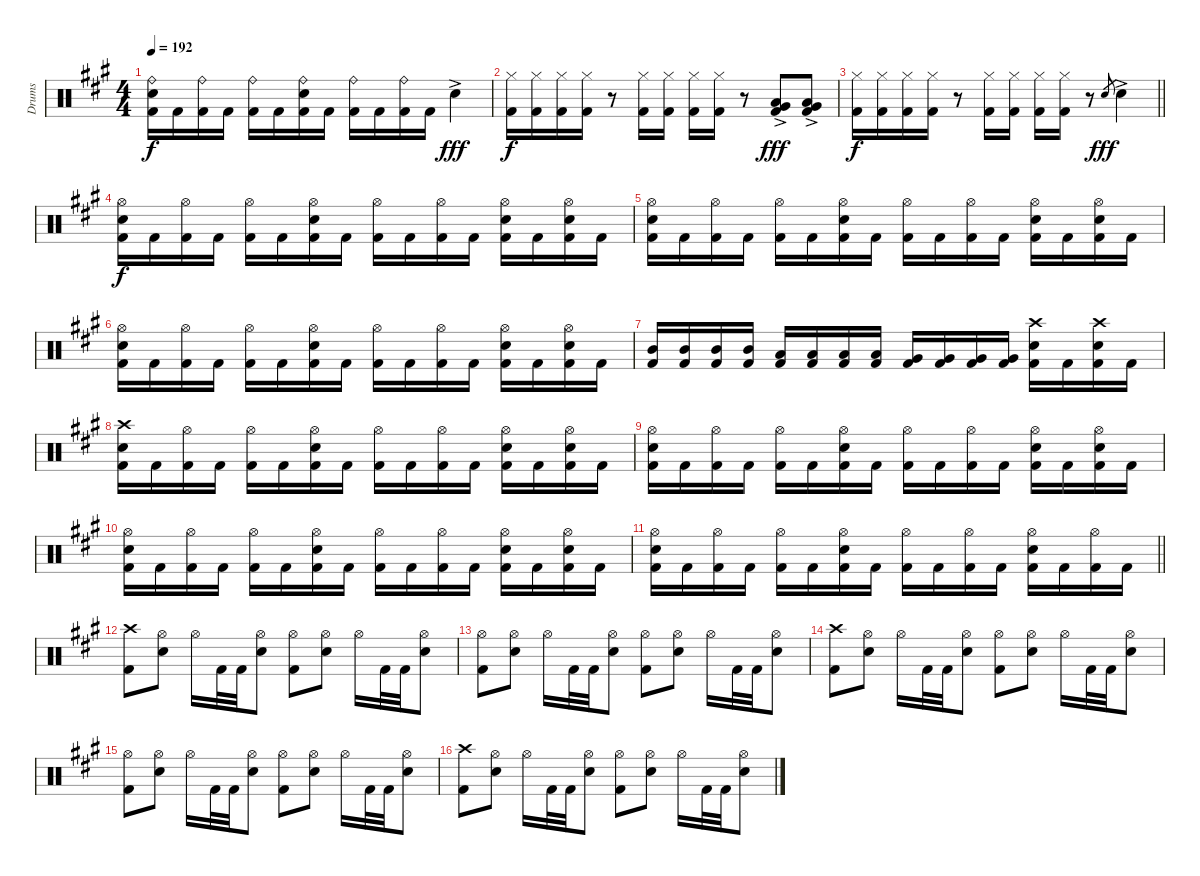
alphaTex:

\track ("Drums" "Drums") {instrument percussion}
\staff {score}
\articulation defaults
\ts (4 4)
\tempo 192
\clef neutral
\ks f#minor
("Ride (bell)" "Snare (hit) 2" "Kick (hit) 2").16{dy f} "Kick (hit) 2".16 ("Ride (bell)" "Kick (hit) 2").16 "Kick (hit) 2".16 ("Ride (bell)" "Kick (hit) 2").16 "Kick (hit) 2".16 ("Ride (bell)" "Snare (hit) 2" "Kick (hit) 2").16 "Kick (hit) 2".16 ("Ride (bell)" "Kick (hit) 2").16 "Kick (hit) 2".16 ("Ride (bell)" "Kick (hit) 2").16 "Kick (hit) 2".16 "Snare (hit) 2"{ac}.4{dy fff} |
("Hi-Hat (closed)" "Kick (hit) 2").16{dy f} ("Hi-Hat (closed)" "Kick (hit) 2").16 ("Hi-Hat (closed)" "Kick (hit) 2").16 ("Hi-Hat (closed)" "Kick (hit) 2").16 r.8 ("Hi-Hat (closed)" "Kick (hit) 2").16 ("Hi-Hat (closed)" "Kick (hit) 2").16 ("Hi-Hat (closed)" "Kick (hit) 2").16 ("Hi-Hat (closed)" "Kick (hit) 2").16 r.8 ("Low Tom (hit)"{ac} "Very Low Tom (hit)"{ac} "Kick (hit) 2").8{dy fff} ("Low Tom (hit)"{ac} "Very Low Tom (hit)"{ac} "Kick (hit) 2").8 |
\barLineRight lightlight
("Hi-Hat (closed)" "Kick (hit) 2").16{dy f} ("Hi-Hat (closed)" "Kick (hit) 2").16 ("Hi-Hat (closed)" "Kick (hit) 2").16 ("Hi-Hat (closed)" "Kick (hit) 2").16 r.8 ("Hi-Hat (closed)" "Kick (hit) 2").16 ("Hi-Hat (closed)" "Kick (hit) 2").16 ("Hi-Hat (closed)" "Kick (hit) 2").16 ("Hi-Hat (closed)" "Kick (hit) 2").16 r.8 "Snare (hit) 2".8{gr dy fff} "Snare (hit) 2"{ac}.4 |
("Hi-Hat (open)" "Snare (hit) 2" "Kick (hit) 2").16{dy f} "Kick (hit) 2".16 ("Hi-Hat (open)" "Kick (hit) 2").16 "Kick (hit) 2".16 ("Hi-Hat (open)" "Kick (hit) 2").16 "Kick (hit) 2".16 ("Hi-Hat (open)" "Snare (hit) 2" "Kick (hit) 2").16 "Kick (hit) 2".16 ("Hi-Hat (open)" "Kick (hit) 2").16 "Kick (hit) 2".16 ("Hi-Hat (open)" "Kick (hit) 2").16 "Kick (hit) 2".16 ("Hi-Hat (open)" "Snare (hit) 2" "Kick (hit) 2").16 "Kick (hit) 2".16 ("Hi-Hat (open)" "Snare (hit) 2" "Kick (hit) 2").16 "Kick (hit) 2".16 |
("Hi-Hat (open)" "Snare (hit) 2" "Kick (hit) 2").16 "Kick (hit) 2".16 ("Hi-Hat (open)" "Kick (hit) 2").16 "Kick (hit) 2".16 ("Hi-Hat (open)" "Kick (hit) 2").16 "Kick (hit) 2".16 ("Hi-Hat (open)" "Snare (hit) 2" "Kick (hit) 2").16 "Kick (hit) 2".16 ("Hi-Hat (open)" "Kick (hit) 2").16 "Kick (hit) 2".16 ("Hi-Hat (open)" "Kick (hit) 2").16 "Kick (hit) 2".16 ("Hi-Hat (open)" "Snare (hit) 2" "Kick (hit) 2").16 "Kick (hit) 2".16 ("Hi-Hat (open)" "Snare (hit) 2" "Kick (hit) 2").16 "Kick (hit) 2".16 |
("Hi-Hat (open)" "Snare (hit) 2" "Kick (hit) 2").16 "Kick (hit) 2".16 ("Hi-Hat (open)" "Kick (hit) 2").16 "Kick (hit) 2".16 ("Hi-Hat (open)" "Kick (hit) 2").16 "Kick (hit) 2".16 ("Hi-Hat (open)" "Snare (hit) 2" "Kick (hit) 2").16 "Kick (hit) 2".16 ("Hi-Hat (open)" "Kick (hit) 2").16 "Kick (hit) 2".16 ("Hi-Hat (open)" "Kick (hit) 2").16 "Kick (hit) 2".16 ("Hi-Hat (open)" "Snare (hit) 2" "Kick (hit) 2").16 "Kick (hit) 2".16 ("Hi-Hat (open)" "Snare (hit) 2" "Kick (hit) 2").16 "Kick (hit) 2".16 |
("Mid Tom (hit)" "Kick (hit) 2").16 ("Mid Tom (hit)" "Kick (hit) 2").16 ("Mid Tom (hit)" "Kick (hit) 2").16 ("Mid Tom (hit)" "Kick (hit) 2").16 ("Low Tom (hit)" "Kick (hit) 2").16 ("Low Tom (hit)" "Kick (hit) 2").16 ("Low Tom (hit)" "Kick (hit) 2").16 ("Low Tom (hit)" "Kick (hit) 2").16 ("Very Low Tom (hit)" "Kick (hit) 2").16 ("Very Low Tom (hit)" "Kick (hit) 2").16 ("Very Low Tom (hit)" "Kick (hit) 2").16 ("Very Low Tom (hit)" "Kick (hit) 2").16 ("Crash high (hit)" "Snare (hit) 2" "Kick (hit) 2").16 "Kick (hit) 2".16 ("Crash high (hit)" "Snare (hit) 2" "Kick (hit) 2").16 "Kick (hit) 2".16 |
("Crash high (hit)" "Snare (hit) 2" "Kick (hit) 2").16 "Kick (hit) 2".16 ("Hi-Hat (open)" "Kick (hit) 2").16 "Kick (hit) 2".16 ("Hi-Hat (open)" "Kick (hit) 2").16 "Kick (hit) 2".16 ("Hi-Hat (open)" "Snare (hit) 2" "Kick (hit) 2").16 "Kick (hit) 2".16 ("Hi-Hat (open)" "Kick (hit) 2").16 "Kick (hit) 2".16 ("Hi-Hat (open)" "Kick (hit) 2").16 "Kick (hit) 2".16 ("Hi-Hat (open)" "Snare (hit) 2" "Kick (hit) 2").16 "Kick (hit) 2".16 ("Hi-Hat (open)" "Snare (hit) 2" "Kick (hit) 2").16 "Kick (hit) 2".16 |
("Hi-Hat (open)" "Snare (hit) 2" "Kick (hit) 2").16 "Kick (hit) 2".16 ("Hi-Hat (open)" "Kick (hit) 2").16 "Kick (hit) 2".16 ("Hi-Hat (open)" "Kick (hit) 2").16 "Kick (hit) 2".16 ("Hi-Hat (open)" "Snare (hit) 2" "Kick (hit) 2").16 "Kick (hit) 2".16 ("Hi-Hat (open)" "Kick (hit) 2").16 "Kick (hit) 2".16 ("Hi-Hat (open)" "Kick (hit) 2").16 "Kick (hit) 2".16 ("Hi-Hat (open)" "Snare (hit) 2" "Kick (hit) 2").16 "Kick (hit) 2".16 ("Hi-Hat (open)" "Snare (hit) 2" "Kick (hit) 2").16 "Kick (hit) 2".16 |
("Hi-Hat (open)" "Snare (hit) 2" "Kick (hit) 2").16 "Kick (hit) 2".16 ("Hi-Hat (open)" "Kick (hit) 2").16 "Kick (hit) 2".16 ("Hi-Hat (open)" "Kick (hit) 2").16 "Kick (hit) 2".16 ("Hi-Hat (open)" "Snare (hit) 2" "Kick (hit) 2").16 "Kick (hit) 2".16 ("Hi-Hat (open)" "Kick (hit) 2").16 "Kick (hit) 2".16 ("Hi-Hat (open)" "Kick (hit) 2").16 "Kick (hit) 2".16 ("Hi-Hat (open)" "Snare (hit) 2" "Kick (hit) 2").16 "Kick (hit) 2".16 ("Hi-Hat (open)" "Snare (hit) 2" "Kick (hit) 2").16 "Kick (hit) 2".16 |
\barLineRight lightlight
("Hi-Hat (open)" "Snare (hit) 2" "Kick (hit) 2").16 "Kick (hit) 2".16 ("Hi-Hat (open)" "Kick (hit) 2").16 "Kick (hit) 2".16 ("Hi-Hat (open)" "Kick (hit) 2").16 "Kick (hit) 2".16 ("Hi-Hat (open)" "Snare (hit) 2" "Kick (hit) 2").16 "Kick (hit) 2".16 ("Hi-Hat (open)" "Kick (hit) 2").16 "Kick (hit) 2".16 ("Hi-Hat (open)" "Kick (hit) 2").16 "Kick (hit) 2".16 ("Hi-Hat (open)" "Snare (hit) 2" "Kick (hit) 2").16 "Kick (hit) 2".16 ("Hi-Hat (open)" "Kick (hit) 2").16 "Kick (hit) 2".16 |
("Crash high (hit)" "Kick (hit) 2").8 ("Hi-Hat (open)" "Snare (hit) 2").8 "Hi-Hat (open)".16 "Kick (hit) 2".32 "Kick (hit) 2".32 ("Hi-Hat (open)" "Snare (hit) 2").8 ("Hi-Hat (open)" "Kick (hit) 2").8 ("Hi-Hat (open)" "Snare (hit) 2").8 "Hi-Hat (open)".16 "Kick (hit) 2".32 "Kick (hit) 2".32 ("Hi-Hat (open)" "Snare (hit) 2").8 |
("Hi-Hat (open)" "Kick (hit) 2").8 ("Hi-Hat (open)" "Snare (hit) 2").8 "Hi-Hat (open)".16 "Kick (hit) 2".32 "Kick (hit) 2".32 ("Hi-Hat (open)" "Snare (hit) 2").8 ("Hi-Hat (open)" "Kick (hit) 2").8 ("Hi-Hat (open)" "Snare (hit) 2").8 "Hi-Hat (open)".16 "Kick (hit) 2".32 "Kick (hit) 2".32 ("Hi-Hat (open)" "Snare (hit) 2").8 |
("Crash high (hit)" "Kick (hit) 2").8 ("Hi-Hat (open)" "Snare (hit) 2").8 "Hi-Hat (open)".16 "Kick (hit) 2".32 "Kick (hit) 2".32 ("Hi-Hat (open)" "Snare (hit) 2").8 ("Hi-Hat (open)" "Kick (hit) 2").8 ("Hi-Hat (open)" "Snare (hit) 2").8 "Hi-Hat (open)".16 "Kick (hit) 2".32 "Kick (hit) 2".32 ("Hi-Hat (open)" "Snare (hit) 2").8 |
("Hi-Hat (open)" "Kick (hit) 2").8 ("Hi-Hat (open)" "Snare (hit) 2").8 "Hi-Hat (open)".16 "Kick (hit) 2".32 "Kick (hit) 2".32 ("Hi-Hat (open)" "Snare (hit) 2").8 ("Hi-Hat (open)" "Kick (hit) 2").8 ("Hi-Hat (open)" "Snare (hit) 2").8 "Hi-Hat (open)".16 "Kick (hit) 2".32 "Kick (hit) 2".32 ("Hi-Hat (open)" "Snare (hit) 2").8 |
("Crash high (hit)" "Kick (hit) 2").8 ("Hi-Hat (open)" "Snare (hit) 2").8 "Hi-Hat (open)".16 "Kick (hit) 2".32 "Kick (hit) 2".32 ("Hi-Hat (open)" "Snare (hit) 2").8 ("Hi-Hat (open)" "Kick (hit) 2").8 ("Hi-Hat (open)" "Snare (hit) 2").8 "Hi-Hat (open)".16 "Kick (hit) 2".32 "Kick (hit) 2".32 ("Hi-Hat (open)" "Snare (hit) 2").8
